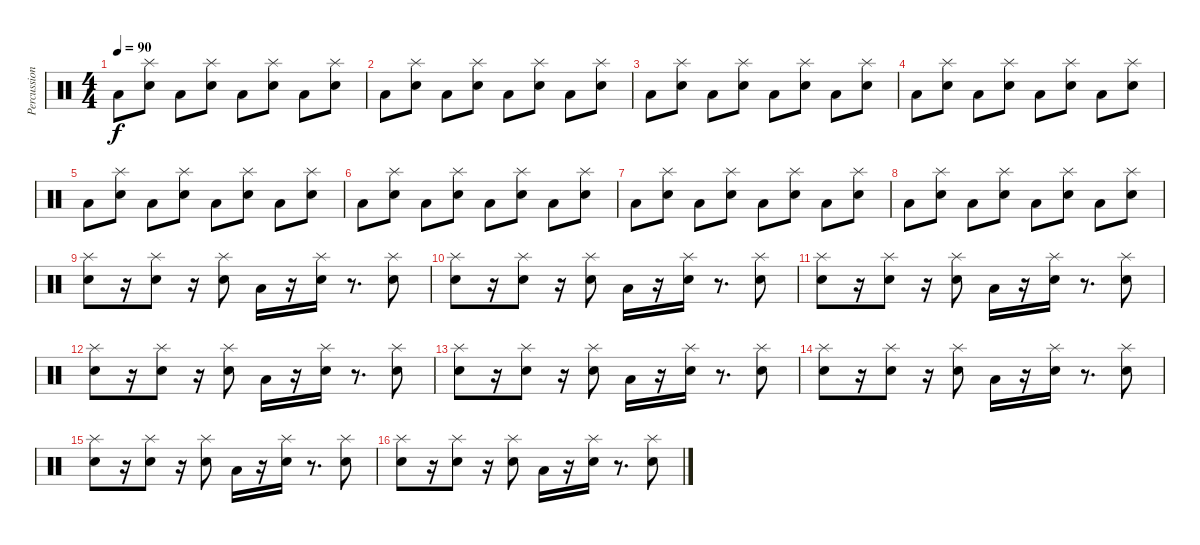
\track ("Percussions" "Percussion") {instrument percussion}
\staff {score}
\articulation defaults
\ts (4 4)
\tempo 90
\clef neutral
\ks c "Low Floor Tom (hit)".8{dy f}
("Snare (hit) 2" "Splash (hit)").8 "Low Floor Tom (hit)".8 ("Snare (hit) 2" "Splash (hit)").8 "Low Floor Tom (hit)".8 ("Snare (hit) 2" "Splash (hit)").8 "Low Floor Tom (hit)".8 ("Snare (hit) 2" "Splash (hit)").8 |
"Low Floor Tom (hit)".8 ("Snare (hit) 2" "Splash (hit)").8 "Low Floor Tom (hit)".8 ("Snare (hit) 2" "Splash (hit)").8 "Low Floor Tom (hit)".8 ("Snare (hit) 2" "Splash (hit)").8 "Low Floor Tom (hit)".8 ("Snare (hit) 2" "Splash (hit)").8 |
"Low Floor Tom (hit)".8 ("Snare (hit) 2" "Splash (hit)").8 "Low Floor Tom (hit)".8 ("Snare (hit) 2" "Splash (hit)").8 "Low Floor Tom (hit)".8 ("Snare (hit) 2" "Splash (hit)").8 "Low Floor Tom (hit)".8 ("Snare (hit) 2" "Splash (hit)").8 |
"Low Floor Tom (hit)".8 ("Snare (hit) 2" "Splash (hit)").8 "Low Floor Tom (hit)".8 ("Snare (hit) 2" "Splash (hit)").8 "Low Floor Tom (hit)".8 ("Snare (hit) 2" "Splash (hit)").8 "Low Floor Tom (hit)".8 ("Snare (hit) 2" "Splash (hit)").8 |
"Low Floor Tom (hit)".8 ("Snare (hit) 2" "Splash (hit)").8 "Low Floor Tom (hit)".8 ("Snare (hit) 2" "Splash (hit)").8 "Low Floor Tom (hit)".8 ("Snare (hit) 2" "Splash (hit)").8 "Low Floor Tom (hit)".8 ("Snare (hit) 2" "Splash (hit)").8 |
"Low Floor Tom (hit)".8 ("Snare (hit) 2" "Splash (hit)").8 "Low Floor Tom (hit)".8 ("Snare (hit) 2" "Splash (hit)").8 "Low Floor Tom (hit)".8 ("Snare (hit) 2" "Splash (hit)").8 "Low Floor Tom (hit)".8 ("Snare (hit) 2" "Splash (hit)").8 |
"Low Floor Tom (hit)".8 ("Snare (hit) 2" "Splash (hit)").8 "Low Floor Tom (hit)".8 ("Snare (hit) 2" "Splash (hit)").8 "Low Floor Tom (hit)".8 ("Snare (hit) 2" "Splash (hit)").8 "Low Floor Tom (hit)".8 ("Snare (hit) 2" "Splash (hit)").8 |
"Low Floor Tom (hit)".8 ("Snare (hit) 2" "Splash (hit)").8 "Low Floor Tom (hit)".8 ("Snare (hit) 2" "Splash (hit)").8 "Low Floor Tom (hit)".8 ("Snare (hit) 2" "Splash (hit)").8 "Low Floor Tom (hit)".8 ("Snare (hit) 2" "Splash (hit)").8 |
("Snare (hit) 2" "Splash (hit)").8 r.16 ("Snare (hit) 2" "Splash (hit)").8 r.16 ("Snare (hit) 2" "Splash (hit)").8 "Low Floor Tom (hit)".16 r.16 ("Snare (hit) 2" "Splash (hit)").16 r.8{d} ("Snare (hit) 2" "Splash (hit)").8 |
("Snare (hit) 2" "Splash (hit)").8 r.16 ("Snare (hit) 2" "Splash (hit)").8 r.16 ("Snare (hit) 2" "Splash (hit)").8 "Low Floor Tom (hit)".16 r.16 ("Snare (hit) 2" "Splash (hit)").16 r.8{d} ("Snare (hit) 2" "Splash (hit)").8 |
("Snare (hit) 2" "Splash (hit)").8 r.16 ("Snare (hit) 2" "Splash (hit)").8 r.16 ("Snare (hit) 2" "Splash (hit)").8 "Low Floor Tom (hit)".16 r.16 ("Snare (hit) 2" "Splash (hit)").16 r.8{d} ("Snare (hit) 2" "Splash (hit)").8 |
("Snare (hit) 2" "Splash (hit)").8 r.16 ("Snare (hit) 2" "Splash (hit)").8 r.16 ("Snare (hit) 2" "Splash (hit)").8 "Low Floor Tom (hit)".16 r.16 ("Snare (hit) 2" "Splash (hit)").16 r.8{d} ("Snare (hit) 2" "Splash (hit)").8 |
("Snare (hit) 2" "Splash (hit)").8 r.16 ("Snare (hit) 2" "Splash (hit)").8 r.16 ("Snare (hit) 2" "Splash (hit)").8 "Low Floor Tom (hit)".16 r.16 ("Snare (hit) 2" "Splash (hit)").16 r.8{d} ("Snare (hit) 2" "Splash (hit)").8 |
("Snare (hit) 2" "Splash (hit)").8 r.16 ("Snare (hit) 2" "Splash (hit)").8 r.16 ("Snare (hit) 2" "Splash (hit)").8 "Low Floor Tom (hit)".16 r.16 ("Snare (hit) 2" "Splash (hit)").16 r.8{d} ("Snare (hit) 2" "Splash (hit)").8 |
("Snare (hit) 2" "Splash (hit)").8 r.16 ("Snare (hit) 2" "Splash (hit)").8 r.16 ("Snare (hit) 2" "Splash (hit)").8 "Low Floor Tom (hit)".16 r.16 ("Snare (hit) 2" "Splash (hit)").16 r.8{d} ("Snare (hit) 2" "Splash (hit)").8 |
("Snare (hit) 2" "Splash (hit)").8 r.16 ("Snare (hit) 2" "Splash (hit)").8 r.16 ("Snare (hit) 2" "Splash (hit)").8 "Low Floor Tom (hit)".16 r.16 ("Snare (hit) 2" "Splash (hit)").16 r.8{d} ("Snare (hit) 2" "Splash (hit)").8
